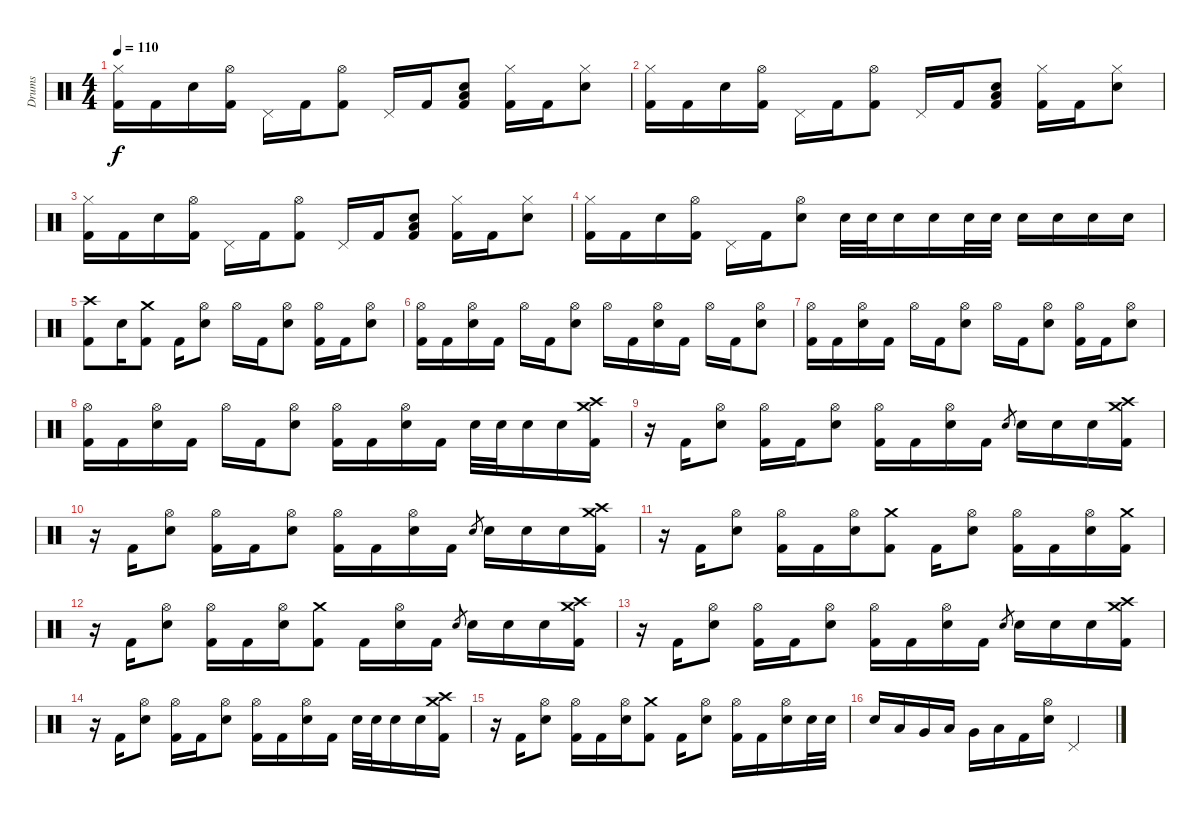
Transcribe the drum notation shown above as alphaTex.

\track ("Drums" "Drums") {instrument percussion}
\staff {score}
\articulation defaults
\ts (4 4)
\tempo 110
\clef neutral
\ks c
("Hi-Hat (closed)" "Kick (hit) 2").16{dy f} "Kick (hit) 2".16 "Electric Snare (hit)".16 ("Hi-Hat (open)" "Kick (hit) 2").16 "Pedal Hi-Hat (hit)".16 "Kick (hit) 2".16 ("Hi-Hat (open)" "Kick (hit) 2").8 "Pedal Hi-Hat (hit)".16 "Kick (hit) 2".16 ("Low Floor Tom (hit)" "Electric Snare (hit)" "Kick (hit) 2").8 ("Hi-Hat (closed)" "Kick (hit) 2").16 "Kick (hit) 2".16 ("Hi-Hat (closed)" "Electric Snare (hit)").8 |
("Hi-Hat (closed)" "Kick (hit) 2").16 "Kick (hit) 2".16 "Electric Snare (hit)".16 ("Hi-Hat (open)" "Kick (hit) 2").16 "Pedal Hi-Hat (hit)".16 "Kick (hit) 2".16 ("Hi-Hat (open)" "Kick (hit) 2").8 "Pedal Hi-Hat (hit)".16 "Kick (hit) 2".16 ("Low Floor Tom (hit)" "Electric Snare (hit)" "Kick (hit) 2").8 ("Hi-Hat (closed)" "Kick (hit) 2").16 "Kick (hit) 2".16 ("Hi-Hat (closed)" "Electric Snare (hit)").8 |
("Hi-Hat (closed)" "Kick (hit) 2").16 "Kick (hit) 2".16 "Electric Snare (hit)".16 ("Hi-Hat (open)" "Kick (hit) 2").16 "Pedal Hi-Hat (hit)".16 "Kick (hit) 2".16 ("Hi-Hat (open)" "Kick (hit) 2").8 "Pedal Hi-Hat (hit)".16 "Kick (hit) 2".16 ("Low Floor Tom (hit)" "Electric Snare (hit)" "Kick (hit) 2").8 ("Hi-Hat (closed)" "Kick (hit) 2").16 "Kick (hit) 2".16 ("Hi-Hat (closed)" "Electric Snare (hit)").8 |
("Hi-Hat (closed)" "Kick (hit) 2").16 "Kick (hit) 2".16 "Electric Snare (hit)".16 ("Hi-Hat (open)" "Kick (hit) 2").16 "Pedal Hi-Hat (hit)".16 "Kick (hit) 2".16 ("Hi-Hat (open)" "Electric Snare (hit)").8 "Electric Snare (hit)".32 "Electric Snare (hit)".32 "Electric Snare (hit)".16 "Electric Snare (hit)".16 "Electric Snare (hit)".32 "Electric Snare (hit)".32 "Electric Snare (hit)".16 "Electric Snare (hit)".16 "Electric Snare (hit)".16 "Electric Snare (hit)".16 |
("Crash high (hit)" "Kick (hit) 2").8 "Electric Snare (hit)".16 ("Crash medium (hit)" "Kick (hit) 2").8 "Kick (hit) 2".16 ("Hi-Hat (open)" "Electric Snare (hit)").8 "Hi-Hat (open)".16 "Kick (hit) 2".16 ("Hi-Hat (open)" "Electric Snare (hit)").8 ("Hi-Hat (open)" "Kick (hit) 2").16 "Kick (hit) 2".16 ("Hi-Hat (open)" "Electric Snare (hit)").8 |
("Hi-Hat (open)" "Kick (hit) 2").16 "Kick (hit) 2".16 ("Hi-Hat (open)" "Electric Snare (hit)").16 "Kick (hit) 2".16 "Hi-Hat (open)".16 "Kick (hit) 2".16 ("Hi-Hat (open)" "Electric Snare (hit)").8 "Hi-Hat (open)".16 "Kick (hit) 2".16 ("Hi-Hat (open)" "Electric Snare (hit)").16 "Kick (hit) 2".16 "Hi-Hat (open)".16 "Kick (hit) 2".16 ("Hi-Hat (open)" "Electric Snare (hit)").8 |
("Hi-Hat (open)" "Kick (hit) 2").16 "Kick (hit) 2".16 ("Hi-Hat (open)" "Electric Snare (hit)").16 "Kick (hit) 2".16 "Hi-Hat (open)".16 "Kick (hit) 2".16 ("Hi-Hat (open)" "Electric Snare (hit)").8 "Hi-Hat (open)".16 "Kick (hit) 2".16 ("Hi-Hat (open)" "Electric Snare (hit)").8 ("Hi-Hat (open)" "Kick (hit) 2").16 "Kick (hit) 2".16 ("Hi-Hat (open)" "Electric Snare (hit)").8 |
("Hi-Hat (open)" "Kick (hit) 2").16 "Kick (hit) 2".16 ("Hi-Hat (open)" "Electric Snare (hit)").16 "Kick (hit) 2".16 "Hi-Hat (open)".16 "Kick (hit) 2".16 ("Hi-Hat (open)" "Electric Snare (hit)").8 ("Hi-Hat (open)" "Kick (hit) 2").16 "Kick (hit) 2".16 ("Hi-Hat (open)" "Electric Snare (hit)").16 "Kick (hit) 2".16 "Electric Snare (hit)".32 "Electric Snare (hit)".32 "Electric Snare (hit)".16 "Electric Snare (hit)".16 ("Crash medium (hit)" "Crash high (hit)" "Kick (hit) 2").16 |
r.16 "Kick (hit) 2".16 ("Hi-Hat (open)" "Electric Snare (hit)").8 ("Hi-Hat (open)" "Kick (hit) 2").16 "Kick (hit) 2".16 ("Hi-Hat (open)" "Electric Snare (hit)").8 ("Hi-Hat (open)" "Kick (hit) 2").16 "Kick (hit) 2".16 ("Hi-Hat (open)" "Electric Snare (hit)").16 "Kick (hit) 2".16 "Electric Snare (hit)".8{gr} "Electric Snare (hit)".16 "Electric Snare (hit)".16 "Electric Snare (hit)".16 ("Crash medium (hit)" "Crash high (hit)" "Kick (hit) 2").16 |
r.16 "Kick (hit) 2".16 ("Hi-Hat (open)" "Electric Snare (hit)").8 ("Hi-Hat (open)" "Kick (hit) 2").16 "Kick (hit) 2".16 ("Hi-Hat (open)" "Electric Snare (hit)").8 ("Hi-Hat (open)" "Kick (hit) 2").16 "Kick (hit) 2".16 ("Hi-Hat (open)" "Electric Snare (hit)").16 "Kick (hit) 2".16 "Electric Snare (hit)".8{gr} "Electric Snare (hit)".16 "Electric Snare (hit)".16 "Electric Snare (hit)".16 ("Crash medium (hit)" "Crash high (hit)" "Kick (hit) 2").16 |
r.16 "Kick (hit) 2".16 ("Hi-Hat (open)" "Electric Snare (hit)").8 ("Hi-Hat (open)" "Kick (hit) 2").16 "Kick (hit) 2".16 ("Hi-Hat (open)" "Electric Snare (hit)").16 ("Crash medium (hit)" "Kick (hit) 2").8 "Kick (hit) 2".16 ("Hi-Hat (open)" "Electric Snare (hit)").8 ("Hi-Hat (open)" "Kick (hit) 2").16 "Kick (hit) 2".16 ("Hi-Hat (open)" "Electric Snare (hit)").16 ("Crash medium (hit)" "Kick (hit) 2").16 |
r.16 "Kick (hit) 2".16 ("Hi-Hat (open)" "Electric Snare (hit)").8 ("Hi-Hat (open)" "Kick (hit) 2").16 "Kick (hit) 2".16 ("Hi-Hat (open)" "Electric Snare (hit)").16 ("Crash medium (hit)" "Kick (hit) 2").8 "Kick (hit) 2".16 ("Hi-Hat (open)" "Electric Snare (hit)").16 "Kick (hit) 2".16 "Electric Snare (hit)".8{gr} "Electric Snare (hit)".16 "Electric Snare (hit)".16 "Electric Snare (hit)".16 ("Crash medium (hit)" "Crash high (hit)" "Kick (hit) 2").16 |
r.16 "Kick (hit) 2".16 ("Hi-Hat (open)" "Electric Snare (hit)").8 ("Hi-Hat (open)" "Kick (hit) 2").16 "Kick (hit) 2".16 ("Hi-Hat (open)" "Electric Snare (hit)").8 ("Hi-Hat (open)" "Kick (hit) 2").16 "Kick (hit) 2".16 ("Hi-Hat (open)" "Electric Snare (hit)").16 "Kick (hit) 2".16 "Electric Snare (hit)".8{gr} "Electric Snare (hit)".16 "Electric Snare (hit)".16 "Electric Snare (hit)".16 ("Crash medium (hit)" "Crash high (hit)" "Kick (hit) 2").16 |
r.16 "Kick (hit) 2".16 ("Hi-Hat (open)" "Electric Snare (hit)").8 ("Hi-Hat (open)" "Kick (hit) 2").16 "Kick (hit) 2".16 ("Hi-Hat (open)" "Electric Snare (hit)").8 ("Hi-Hat (open)" "Kick (hit) 2").16 "Kick (hit) 2".16 ("Hi-Hat (open)" "Electric Snare (hit)").16 "Kick (hit) 2".16 "Electric Snare (hit)".32 "Electric Snare (hit)".32 "Electric Snare (hit)".16 "Electric Snare (hit)".16 ("Crash medium (hit)" "Crash high (hit)" "Kick (hit) 2").16 |
r.16 "Kick (hit) 2".16 ("Hi-Hat (open)" "Electric Snare (hit)").8 ("Hi-Hat (open)" "Kick (hit) 2").16 "Kick (hit) 2".16 ("Hi-Hat (open)" "Electric Snare (hit)").16 ("Crash medium (hit)" "Kick (hit) 2").8 "Kick (hit) 2".16 ("Hi-Hat (open)" "Electric Snare (hit)").8 ("Hi-Hat (open)" "Kick (hit) 2").16 "Kick (hit) 2".16 ("Hi-Hat (open)" "Electric Snare (hit)").16 "Electric Snare (hit)".32 "Electric Snare (hit)".32 |
"Electric Snare (hit)".16 "Low Tom (hit)".16 "Very Low Tom (hit)".16 "Low Tom (hit)".16 "Very Low Tom (hit)".16 "Low Floor Tom (hit)".16 "Kick (hit) 2".16 ("Hi-Hat (open)" "Electric Snare (hit)").16 "Pedal Hi-Hat (hit)".2
